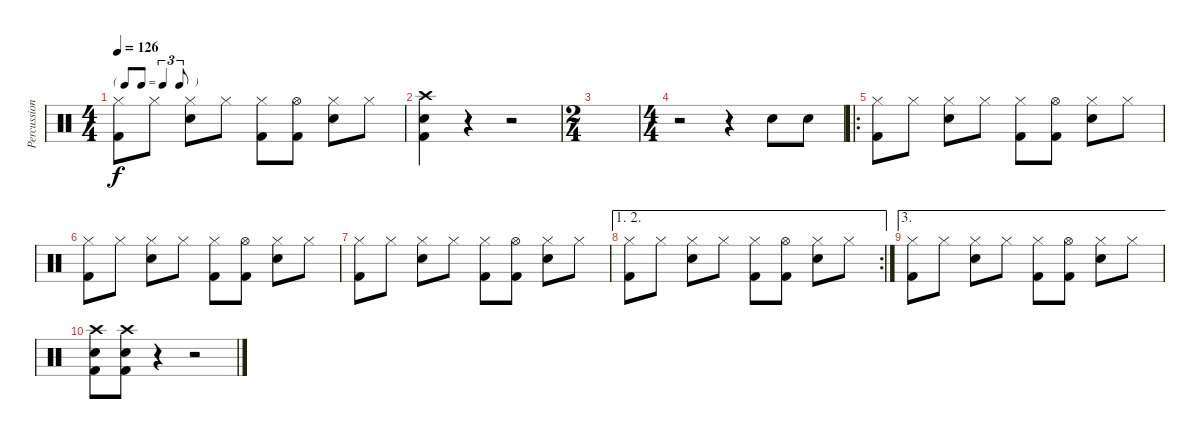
\track ("Percussion" "Percussion") {instrument percussion}
\staff {score}
\articulation defaults
\ts (4 4)
\tf triplet8th
\tempo 126
\clef neutral
\ks c
("Hi-Hat (closed)" "Kick (hit) 2").8{dy f} "Hi-Hat (closed)".8 ("Hi-Hat (closed)" "Electric Snare (hit)").8 "Hi-Hat (closed)".8 ("Hi-Hat (closed)" "Kick (hit) 2").8 ("Hi-Hat (open)" "Kick (hit) 2").8 ("Hi-Hat (closed)" "Electric Snare (hit)").8 "Hi-Hat (closed)".8 |
("Crash high (hit)" "Electric Snare (hit)" "Kick (hit) 2").4 r.4 r.2 |
\ts (2 4)
|
\ts (4 4)
r.2 r.4 "Electric Snare (hit)".8 "Electric Snare (hit)".8 |
\ro
("Hi-Hat (closed)" "Kick (hit) 2").8 "Hi-Hat (closed)".8 ("Hi-Hat (closed)" "Electric Snare (hit)").8 "Hi-Hat (closed)".8 ("Hi-Hat (closed)" "Kick (hit) 2").8 ("Hi-Hat (open)" "Kick (hit) 2").8 ("Hi-Hat (closed)" "Electric Snare (hit)").8 "Hi-Hat (closed)".8 |
("Hi-Hat (closed)" "Kick (hit) 2").8 "Hi-Hat (closed)".8 ("Hi-Hat (closed)" "Electric Snare (hit)").8 "Hi-Hat (closed)".8 ("Hi-Hat (closed)" "Kick (hit) 2").8 ("Hi-Hat (open)" "Kick (hit) 2").8 ("Hi-Hat (closed)" "Electric Snare (hit)").8 "Hi-Hat (closed)".8 |
("Hi-Hat (closed)" "Kick (hit) 2").8 "Hi-Hat (closed)".8 ("Hi-Hat (closed)" "Electric Snare (hit)").8 "Hi-Hat (closed)".8 ("Hi-Hat (closed)" "Kick (hit) 2").8 ("Hi-Hat (open)" "Kick (hit) 2").8 ("Hi-Hat (closed)" "Electric Snare (hit)").8 "Hi-Hat (closed)".8 |
\ae (1 2)
\rc 2
("Hi-Hat (closed)" "Kick (hit) 2").8 "Hi-Hat (closed)".8 ("Hi-Hat (closed)" "Electric Snare (hit)").8 "Hi-Hat (closed)".8 ("Hi-Hat (closed)" "Kick (hit) 2").8 ("Hi-Hat (open)" "Kick (hit) 2").8 ("Hi-Hat (closed)" "Electric Snare (hit)").8 "Hi-Hat (closed)".8 |
\ae 3
("Hi-Hat (closed)" "Kick (hit) 2").8 "Hi-Hat (closed)".8 ("Hi-Hat (closed)" "Electric Snare (hit)").8 "Hi-Hat (closed)".8 ("Hi-Hat (closed)" "Kick (hit) 2").8 ("Hi-Hat (open)" "Kick (hit) 2").8 ("Hi-Hat (closed)" "Electric Snare (hit)").8 "Hi-Hat (closed)".8 |
("Crash high (hit)" "Electric Snare (hit)" "Kick (hit) 2").8 ("Crash high (hit)" "Electric Snare (hit)" "Kick (hit) 2").8 r.4 r.2
